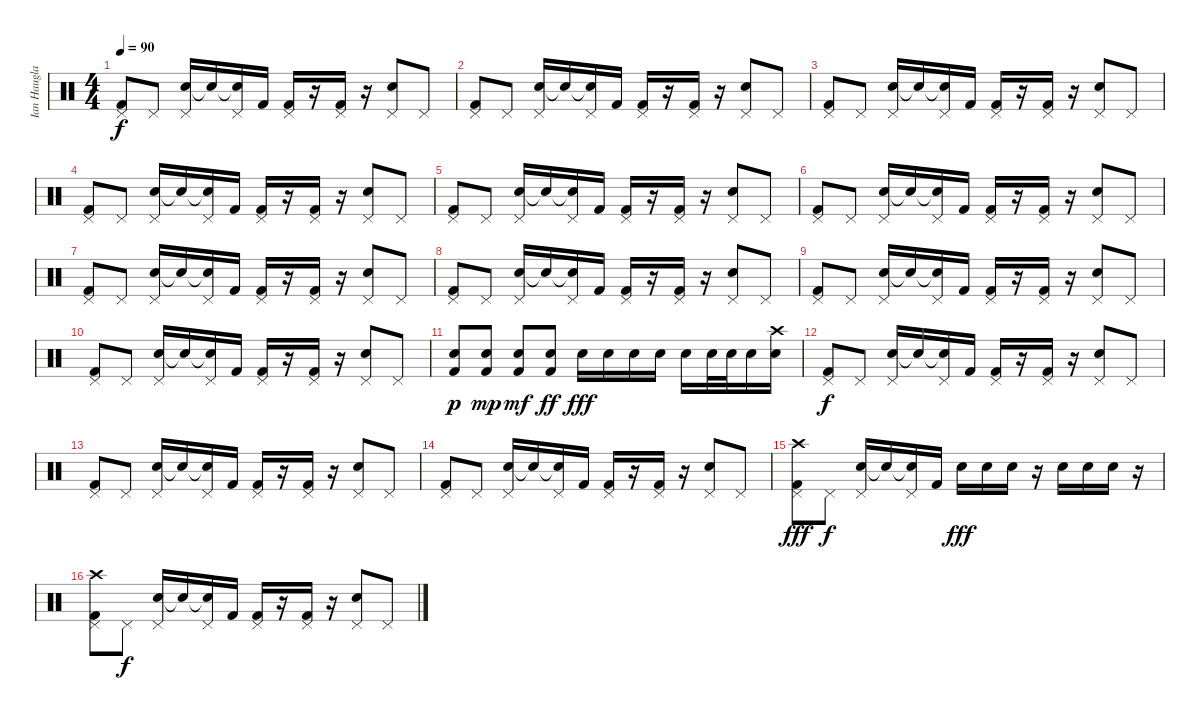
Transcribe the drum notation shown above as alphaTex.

\track ("Ian Haugland" "Ian Haugla") {instrument percussion}
\staff {score}
\articulation defaults
\ts (4 4)
\tempo 90
\clef neutral
\ks c
("Kick (hit) 2" "Pedal Hi-Hat (hit)").8{dy f} "Pedal Hi-Hat (hit)".8 ("Electric Snare (hit)" "Pedal Hi-Hat (hit)").16 "Snare (hit)"{t}.16 ("Snare (hit)"{t} "Pedal Hi-Hat (hit)").16 "Kick (hit) 2".16 ("Kick (hit) 2" "Pedal Hi-Hat (hit)").16 r.16 ("Kick (hit) 2" "Pedal Hi-Hat (hit)").16 r.16 ("Electric Snare (hit)" "Pedal Hi-Hat (hit)").8 "Pedal Hi-Hat (hit)".8 |
("Kick (hit) 2" "Pedal Hi-Hat (hit)").8 "Pedal Hi-Hat (hit)".8 ("Electric Snare (hit)" "Pedal Hi-Hat (hit)").16 "Snare (hit)"{t}.16 ("Snare (hit)"{t} "Pedal Hi-Hat (hit)").16 "Kick (hit) 2".16 ("Kick (hit) 2" "Pedal Hi-Hat (hit)").16 r.16 ("Kick (hit) 2" "Pedal Hi-Hat (hit)").16 r.16 ("Electric Snare (hit)" "Pedal Hi-Hat (hit)").8 "Pedal Hi-Hat (hit)".8 |
("Kick (hit) 2" "Pedal Hi-Hat (hit)").8 "Pedal Hi-Hat (hit)".8 ("Electric Snare (hit)" "Pedal Hi-Hat (hit)").16 "Snare (hit)"{t}.16 ("Snare (hit)"{t} "Pedal Hi-Hat (hit)").16 "Kick (hit) 2".16 ("Kick (hit) 2" "Pedal Hi-Hat (hit)").16 r.16 ("Kick (hit) 2" "Pedal Hi-Hat (hit)").16 r.16 ("Electric Snare (hit)" "Pedal Hi-Hat (hit)").8 "Pedal Hi-Hat (hit)".8 |
("Kick (hit) 2" "Pedal Hi-Hat (hit)").8 "Pedal Hi-Hat (hit)".8 ("Electric Snare (hit)" "Pedal Hi-Hat (hit)").16 "Snare (hit)"{t}.16 ("Snare (hit)"{t} "Pedal Hi-Hat (hit)").16 "Kick (hit) 2".16 ("Kick (hit) 2" "Pedal Hi-Hat (hit)").16 r.16 ("Kick (hit) 2" "Pedal Hi-Hat (hit)").16 r.16 ("Electric Snare (hit)" "Pedal Hi-Hat (hit)").8 "Pedal Hi-Hat (hit)".8 |
("Kick (hit) 2" "Pedal Hi-Hat (hit)").8 "Pedal Hi-Hat (hit)".8 ("Electric Snare (hit)" "Pedal Hi-Hat (hit)").16 "Snare (hit)"{t}.16 ("Snare (hit)"{t} "Pedal Hi-Hat (hit)").16 "Kick (hit) 2".16 ("Kick (hit) 2" "Pedal Hi-Hat (hit)").16 r.16 ("Kick (hit) 2" "Pedal Hi-Hat (hit)").16 r.16 ("Electric Snare (hit)" "Pedal Hi-Hat (hit)").8 "Pedal Hi-Hat (hit)".8 |
("Kick (hit) 2" "Pedal Hi-Hat (hit)").8 "Pedal Hi-Hat (hit)".8 ("Electric Snare (hit)" "Pedal Hi-Hat (hit)").16 "Snare (hit)"{t}.16 ("Snare (hit)"{t} "Pedal Hi-Hat (hit)").16 "Kick (hit) 2".16 ("Kick (hit) 2" "Pedal Hi-Hat (hit)").16 r.16 ("Kick (hit) 2" "Pedal Hi-Hat (hit)").16 r.16 ("Electric Snare (hit)" "Pedal Hi-Hat (hit)").8 "Pedal Hi-Hat (hit)".8 |
("Kick (hit) 2" "Pedal Hi-Hat (hit)").8 "Pedal Hi-Hat (hit)".8 ("Electric Snare (hit)" "Pedal Hi-Hat (hit)").16 "Snare (hit)"{t}.16 ("Snare (hit)"{t} "Pedal Hi-Hat (hit)").16 "Kick (hit) 2".16 ("Kick (hit) 2" "Pedal Hi-Hat (hit)").16 r.16 ("Kick (hit) 2" "Pedal Hi-Hat (hit)").16 r.16 ("Electric Snare (hit)" "Pedal Hi-Hat (hit)").8 "Pedal Hi-Hat (hit)".8 |
("Kick (hit) 2" "Pedal Hi-Hat (hit)").8 "Pedal Hi-Hat (hit)".8 ("Electric Snare (hit)" "Pedal Hi-Hat (hit)").16 "Snare (hit)"{t}.16 ("Snare (hit)"{t} "Pedal Hi-Hat (hit)").16 "Kick (hit) 2".16 ("Kick (hit) 2" "Pedal Hi-Hat (hit)").16 r.16 ("Kick (hit) 2" "Pedal Hi-Hat (hit)").16 r.16 ("Electric Snare (hit)" "Pedal Hi-Hat (hit)").8 "Pedal Hi-Hat (hit)".8 |
("Kick (hit) 2" "Pedal Hi-Hat (hit)").8 "Pedal Hi-Hat (hit)".8 ("Electric Snare (hit)" "Pedal Hi-Hat (hit)").16 "Snare (hit)"{t}.16 ("Snare (hit)"{t} "Pedal Hi-Hat (hit)").16 "Kick (hit) 2".16 ("Kick (hit) 2" "Pedal Hi-Hat (hit)").16 r.16 ("Kick (hit) 2" "Pedal Hi-Hat (hit)").16 r.16 ("Electric Snare (hit)" "Pedal Hi-Hat (hit)").8 "Pedal Hi-Hat (hit)".8 |
("Kick (hit) 2" "Pedal Hi-Hat (hit)").8 "Pedal Hi-Hat (hit)".8 ("Electric Snare (hit)" "Pedal Hi-Hat (hit)").16 "Snare (hit)"{t}.16 ("Snare (hit)"{t} "Pedal Hi-Hat (hit)").16 "Kick (hit) 2".16 ("Kick (hit) 2" "Pedal Hi-Hat (hit)").16 r.16 ("Kick (hit) 2" "Pedal Hi-Hat (hit)").16 r.16 ("Electric Snare (hit)" "Pedal Hi-Hat (hit)").8 "Pedal Hi-Hat (hit)".8 |
("Electric Snare (hit)" "Kick (hit) 2").8{dy p} ("Electric Snare (hit)" "Kick (hit) 2").8{dy mp} ("Electric Snare (hit)" "Kick (hit) 2").8{dy mf} ("Electric Snare (hit)" "Kick (hit) 2").8{dy ff} "Snare (hit) 2".16{dy fff} "Snare (hit) 2".16 "Snare (hit) 2".16 "Snare (hit) 2".16 "Snare (hit) 2".16 "Snare (hit) 2".32 "Snare (hit) 2".32 "Snare (hit) 2".16 ("Snare (hit) 2" "Crash high (hit)").16 |
("Kick (hit) 2" "Pedal Hi-Hat (hit)").8{dy f} "Pedal Hi-Hat (hit)".8 ("Electric Snare (hit)" "Pedal Hi-Hat (hit)").16 "Snare (hit)"{t}.16 ("Snare (hit)"{t} "Pedal Hi-Hat (hit)").16 "Kick (hit) 2".16 ("Kick (hit) 2" "Pedal Hi-Hat (hit)").16 r.16 ("Kick (hit) 2" "Pedal Hi-Hat (hit)").16 r.16 ("Electric Snare (hit)" "Pedal Hi-Hat (hit)").8 "Pedal Hi-Hat (hit)".8 |
("Kick (hit) 2" "Pedal Hi-Hat (hit)").8 "Pedal Hi-Hat (hit)".8 ("Electric Snare (hit)" "Pedal Hi-Hat (hit)").16 "Snare (hit)"{t}.16 ("Snare (hit)"{t} "Pedal Hi-Hat (hit)").16 "Kick (hit) 2".16 ("Kick (hit) 2" "Pedal Hi-Hat (hit)").16 r.16 ("Kick (hit) 2" "Pedal Hi-Hat (hit)").16 r.16 ("Electric Snare (hit)" "Pedal Hi-Hat (hit)").8 "Pedal Hi-Hat (hit)".8 |
("Kick (hit) 2" "Pedal Hi-Hat (hit)").8 "Pedal Hi-Hat (hit)".8 ("Electric Snare (hit)" "Pedal Hi-Hat (hit)").16 "Snare (hit)"{t}.16 ("Snare (hit)"{t} "Pedal Hi-Hat (hit)").16 "Kick (hit) 2".16 ("Kick (hit) 2" "Pedal Hi-Hat (hit)").16 r.16 ("Kick (hit) 2" "Pedal Hi-Hat (hit)").16 r.16 ("Electric Snare (hit)" "Pedal Hi-Hat (hit)").8 "Pedal Hi-Hat (hit)".8 |
("Kick (hit) 2" "Pedal Hi-Hat (hit)" "Crash high (hit)").8{dy fff} "Pedal Hi-Hat (hit)".8{dy f} ("Electric Snare (hit)" "Pedal Hi-Hat (hit)").16 "Snare (hit)"{t}.16 ("Snare (hit)"{t} "Pedal Hi-Hat (hit)").16 "Kick (hit) 2".16 "Snare (hit) 2".16{dy fff} "Snare (hit) 2".16 "Snare (hit) 2".16 r.16 "Snare (hit) 2".16 "Snare (hit) 2".16 "Snare (hit) 2".16 r.16 |
("Kick (hit) 2" "Pedal Hi-Hat (hit)" "Crash high (hit)").8 "Pedal Hi-Hat (hit)".8{dy f} ("Electric Snare (hit)" "Pedal Hi-Hat (hit)").16 "Snare (hit)"{t}.16 ("Snare (hit)"{t} "Pedal Hi-Hat (hit)").16 "Kick (hit) 2".16 ("Kick (hit) 2" "Pedal Hi-Hat (hit)").16 r.16 ("Kick (hit) 2" "Pedal Hi-Hat (hit)").16 r.16 ("Electric Snare (hit)" "Pedal Hi-Hat (hit)").8 "Pedal Hi-Hat (hit)".8
